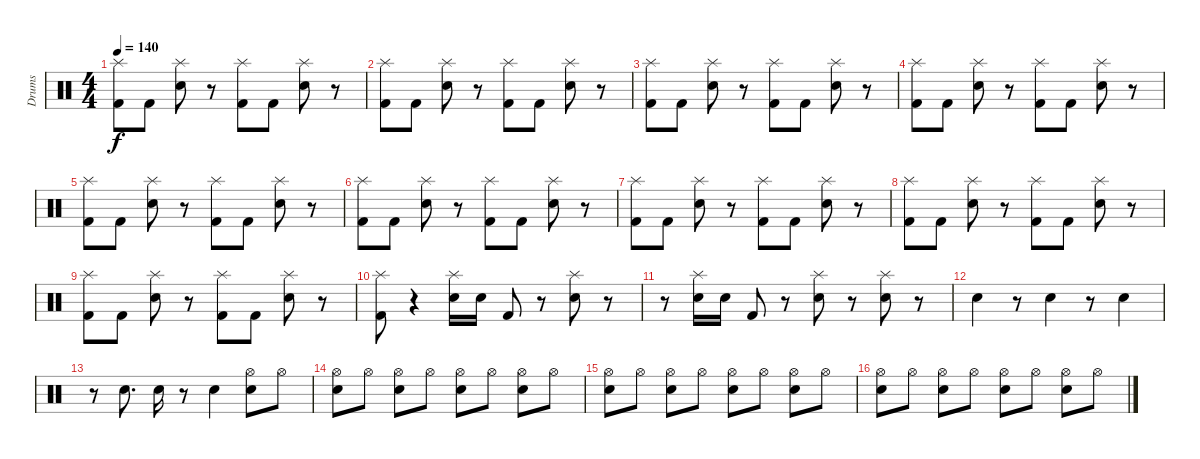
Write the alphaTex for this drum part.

\track ("Drums" "Drums") {instrument percussion}
\staff {score}
\articulation defaults
\ts (4 4)
\tempo 140
\clef neutral
\ks c
("Splash (hit)" "Kick (hit) 2").8{dy f} "Kick (hit) 2".8 ("Splash (hit)" "Snare (hit) 2").8 r.8 ("Splash (hit)" "Kick (hit) 2").8 "Kick (hit) 2".8 ("Splash (hit)" "Snare (hit) 2").8 r.8 |
("Splash (hit)" "Kick (hit) 2").8 "Kick (hit) 2".8 ("Splash (hit)" "Snare (hit) 2").8 r.8 ("Splash (hit)" "Kick (hit) 2").8 "Kick (hit) 2".8 ("Splash (hit)" "Snare (hit) 2").8 r.8 |
("Splash (hit)" "Kick (hit) 2").8 "Kick (hit) 2".8 ("Splash (hit)" "Snare (hit) 2").8 r.8 ("Splash (hit)" "Kick (hit) 2").8 "Kick (hit) 2".8 ("Splash (hit)" "Snare (hit) 2").8 r.8 |
("Splash (hit)" "Kick (hit) 2").8 "Kick (hit) 2".8 ("Splash (hit)" "Snare (hit) 2").8 r.8 ("Splash (hit)" "Kick (hit) 2").8 "Kick (hit) 2".8 ("Splash (hit)" "Snare (hit) 2").8 r.8 |
("Splash (hit)" "Kick (hit) 2").8 "Kick (hit) 2".8 ("Splash (hit)" "Snare (hit) 2").8 r.8 ("Splash (hit)" "Kick (hit) 2").8 "Kick (hit) 2".8 ("Splash (hit)" "Snare (hit) 2").8 r.8 |
("Splash (hit)" "Kick (hit) 2").8 "Kick (hit) 2".8 ("Splash (hit)" "Snare (hit) 2").8 r.8 ("Splash (hit)" "Kick (hit) 2").8 "Kick (hit) 2".8 ("Splash (hit)" "Snare (hit) 2").8 r.8 |
("Splash (hit)" "Kick (hit) 2").8 "Kick (hit) 2".8 ("Splash (hit)" "Snare (hit) 2").8 r.8 ("Splash (hit)" "Kick (hit) 2").8 "Kick (hit) 2".8 ("Splash (hit)" "Snare (hit) 2").8 r.8 |
("Splash (hit)" "Kick (hit) 2").8 "Kick (hit) 2".8 ("Splash (hit)" "Snare (hit) 2").8 r.8 ("Splash (hit)" "Kick (hit) 2").8 "Kick (hit) 2".8 ("Splash (hit)" "Snare (hit) 2").8 r.8 |
("Splash (hit)" "Kick (hit) 2").8 "Kick (hit) 2".8 ("Splash (hit)" "Snare (hit) 2").8 r.8 ("Splash (hit)" "Kick (hit) 2").8 "Kick (hit) 2".8 ("Splash (hit)" "Snare (hit) 2").8 r.8 |
("Splash (hit)" "Kick (hit) 2").8 r.4 ("Splash (hit)" "Snare (hit) 2").16 "Snare (hit) 2".16 "Kick (hit) 2".8 r.8 ("Splash (hit)" "Snare (hit) 2").8 r.8 |
r.8 ("Splash (hit)" "Snare (hit) 2").16 "Snare (hit) 2".16 "Kick (hit) 2".8 r.8 ("Splash (hit)" "Snare (hit) 2").8 r.8 ("Splash (hit)" "Snare (hit) 2").8 r.8 |
"Snare (hit) 2".4 r.8 "Snare (hit) 2".4 r.8 "Snare (hit) 2".4 |
r.8 "Snare (hit) 2".8{d} "Snare (hit) 2".16 r.8 "Snare (hit) 2".4 ("Snare (hit) 2" "Hi-Hat (open)").8 "Hi-Hat (open)".8 |
("Snare (hit) 2" "Hi-Hat (open)").8 "Hi-Hat (open)".8 ("Snare (hit) 2" "Hi-Hat (open)").8 "Hi-Hat (open)".8 ("Snare (hit) 2" "Hi-Hat (open)").8 "Hi-Hat (open)".8 ("Snare (hit) 2" "Hi-Hat (open)").8 "Hi-Hat (open)".8 |
("Snare (hit) 2" "Hi-Hat (open)").8 "Hi-Hat (open)".8 ("Snare (hit) 2" "Hi-Hat (open)").8 "Hi-Hat (open)".8 ("Snare (hit) 2" "Hi-Hat (open)").8 "Hi-Hat (open)".8 ("Snare (hit) 2" "Hi-Hat (open)").8 "Hi-Hat (open)".8 |
("Snare (hit) 2" "Hi-Hat (open)").8 "Hi-Hat (open)".8 ("Snare (hit) 2" "Hi-Hat (open)").8 "Hi-Hat (open)".8 ("Snare (hit) 2" "Hi-Hat (open)").8 "Hi-Hat (open)".8 ("Snare (hit) 2" "Hi-Hat (open)").8 "Hi-Hat (open)".8
